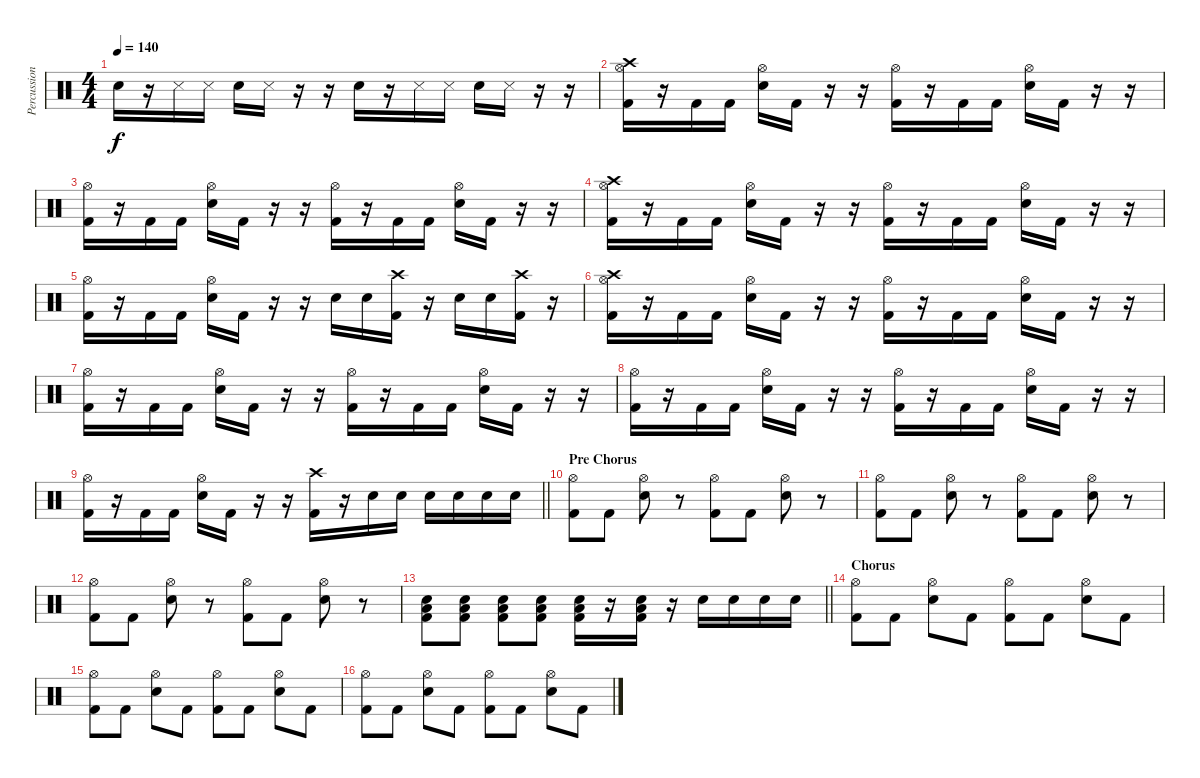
\track ("Percussion" "Percussion") {instrument percussion}
\staff {score}
\articulation defaults
\ts (4 4)
\tempo 140
\clef neutral
\ks c "Snare (hit) 2".16{dy f}
r.16 "Snare (side stick) 3".16 "Snare (side stick) 3".16 "Snare (hit) 2".16 "Snare (side stick) 3".16 r.16 r.16 "Snare (hit) 2".16 r.16 "Snare (side stick) 3".16 "Snare (side stick) 3".16 "Snare (hit) 2".16 "Snare (side stick) 3".16 r.16 r.16 |
("Crash high (hit)" "Hi-Hat (open)" "Kick (hit) 2").16 r.16 "Kick (hit) 2".16 "Kick (hit) 2".16 ("Hi-Hat (open)" "Snare (hit) 2").16 "Kick (hit) 2".16 r.16 r.16 ("Hi-Hat (open)" "Kick (hit) 2").16 r.16 "Kick (hit) 2".16 "Kick (hit) 2".16 ("Hi-Hat (open)" "Snare (hit) 2").16 "Kick (hit) 2".16 r.16 r.16 |
("Hi-Hat (open)" "Kick (hit) 2").16 r.16 "Kick (hit) 2".16 "Kick (hit) 2".16 ("Hi-Hat (open)" "Snare (hit) 2").16 "Kick (hit) 2".16 r.16 r.16 ("Hi-Hat (open)" "Kick (hit) 2").16 r.16 "Kick (hit) 2".16 "Kick (hit) 2".16 ("Hi-Hat (open)" "Snare (hit) 2").16 "Kick (hit) 2".16 r.16 r.16 |
("Crash high (hit)" "Hi-Hat (open)" "Kick (hit) 2").16 r.16 "Kick (hit) 2".16 "Kick (hit) 2".16 ("Hi-Hat (open)" "Snare (hit) 2").16 "Kick (hit) 2".16 r.16 r.16 ("Hi-Hat (open)" "Kick (hit) 2").16 r.16 "Kick (hit) 2".16 "Kick (hit) 2".16 ("Hi-Hat (open)" "Snare (hit) 2").16 "Kick (hit) 2".16 r.16 r.16 |
("Hi-Hat (open)" "Kick (hit) 2").16 r.16 "Kick (hit) 2".16 "Kick (hit) 2".16 ("Hi-Hat (open)" "Snare (hit) 2").16 "Kick (hit) 2".16 r.16 r.16 "Snare (hit) 2".16 "Snare (hit) 2".16 ("Crash high (hit)" "Kick (hit) 2").16 r.16 "Snare (hit) 2".16 "Snare (hit) 2".16 ("Crash high (hit)" "Kick (hit) 2").16 r.16 |
("Crash high (hit)" "Hi-Hat (open)" "Kick (hit) 2").16 r.16 "Kick (hit) 2".16 "Kick (hit) 2".16 ("Hi-Hat (open)" "Snare (hit) 2").16 "Kick (hit) 2".16 r.16 r.16 ("Hi-Hat (open)" "Kick (hit) 2").16 r.16 "Kick (hit) 2".16 "Kick (hit) 2".16 ("Hi-Hat (open)" "Snare (hit) 2").16 "Kick (hit) 2".16 r.16 r.16 |
("Hi-Hat (open)" "Kick (hit) 2").16 r.16 "Kick (hit) 2".16 "Kick (hit) 2".16 ("Hi-Hat (open)" "Snare (hit) 2").16 "Kick (hit) 2".16 r.16 r.16 ("Hi-Hat (open)" "Kick (hit) 2").16 r.16 "Kick (hit) 2".16 "Kick (hit) 2".16 ("Hi-Hat (open)" "Snare (hit) 2").16 "Kick (hit) 2".16 r.16 r.16 |
("Hi-Hat (open)" "Kick (hit) 2").16 r.16 "Kick (hit) 2".16 "Kick (hit) 2".16 ("Hi-Hat (open)" "Snare (hit) 2").16 "Kick (hit) 2".16 r.16 r.16 ("Hi-Hat (open)" "Kick (hit) 2").16 r.16 "Kick (hit) 2".16 "Kick (hit) 2".16 ("Hi-Hat (open)" "Snare (hit) 2").16 "Kick (hit) 2".16 r.16 r.16 |
\barLineRight lightlight
("Hi-Hat (open)" "Kick (hit) 2").16 r.16 "Kick (hit) 2".16 "Kick (hit) 2".16 ("Hi-Hat (open)" "Snare (hit) 2").16 "Kick (hit) 2".16 r.16 r.16 ("Crash high (hit)" "Kick (hit) 2").16 r.16 "Snare (hit) 2".16 "Snare (hit) 2".16 "Snare (hit) 2".16 "Snare (hit) 2".16 "Snare (hit) 2".16 "Snare (hit) 2".16 |
\section ("" "Pre Chorus")
("Hi-Hat (open)" "Kick (hit) 2").8 "Kick (hit) 2".8 ("Hi-Hat (open)" "Snare (hit) 2").8 r.8 ("Hi-Hat (open)" "Kick (hit) 2").8 "Kick (hit) 2".8 ("Hi-Hat (open)" "Snare (hit) 2").8 r.8 |
("Hi-Hat (open)" "Kick (hit) 2").8 "Kick (hit) 2".8 ("Hi-Hat (open)" "Snare (hit) 2").8 r.8 ("Hi-Hat (open)" "Kick (hit) 2").8 "Kick (hit) 2".8 ("Hi-Hat (open)" "Snare (hit) 2").8 r.8 |
("Hi-Hat (open)" "Kick (hit) 2").8 "Kick (hit) 2".8 ("Hi-Hat (open)" "Snare (hit) 2").8 r.8 ("Hi-Hat (open)" "Kick (hit) 2").8 "Kick (hit) 2".8 ("Hi-Hat (open)" "Snare (hit) 2").8 r.8 |
\barLineRight lightlight
("Low Floor Tom (hit)" "Snare (hit) 2" "Kick (hit) 2").8 ("Low Floor Tom (hit)" "Snare (hit) 2" "Kick (hit) 2").8 ("Low Floor Tom (hit)" "Snare (hit) 2" "Kick (hit) 2").8 ("Low Floor Tom (hit)" "Snare (hit) 2" "Kick (hit) 2").8 ("Low Floor Tom (hit)" "Snare (hit) 2" "Kick (hit) 2").16 r.16 ("Low Floor Tom (hit)" "Snare (hit) 2" "Kick (hit) 2").16 r.16 "Snare (hit) 2".16 "Snare (hit) 2".16 "Snare (hit) 2".16 "Snare (hit) 2".16 |
\section ("" "Chorus")
("Hi-Hat (open)" "Kick (hit) 2").8 "Kick (hit) 2".8 ("Hi-Hat (open)" "Snare (hit) 2").8 "Kick (hit) 2".8 ("Hi-Hat (open)" "Kick (hit) 2").8 "Kick (hit) 2".8 ("Hi-Hat (open)" "Snare (hit) 2").8 "Kick (hit) 2".8 |
("Hi-Hat (open)" "Kick (hit) 2").8 "Kick (hit) 2".8 ("Hi-Hat (open)" "Snare (hit) 2").8 "Kick (hit) 2".8 ("Hi-Hat (open)" "Kick (hit) 2").8 "Kick (hit) 2".8 ("Hi-Hat (open)" "Snare (hit) 2").8 "Kick (hit) 2".8 |
("Hi-Hat (open)" "Kick (hit) 2").8 "Kick (hit) 2".8 ("Hi-Hat (open)" "Snare (hit) 2").8 "Kick (hit) 2".8 ("Hi-Hat (open)" "Kick (hit) 2").8 "Kick (hit) 2".8 ("Hi-Hat (open)" "Snare (hit) 2").8 "Kick (hit) 2".8
